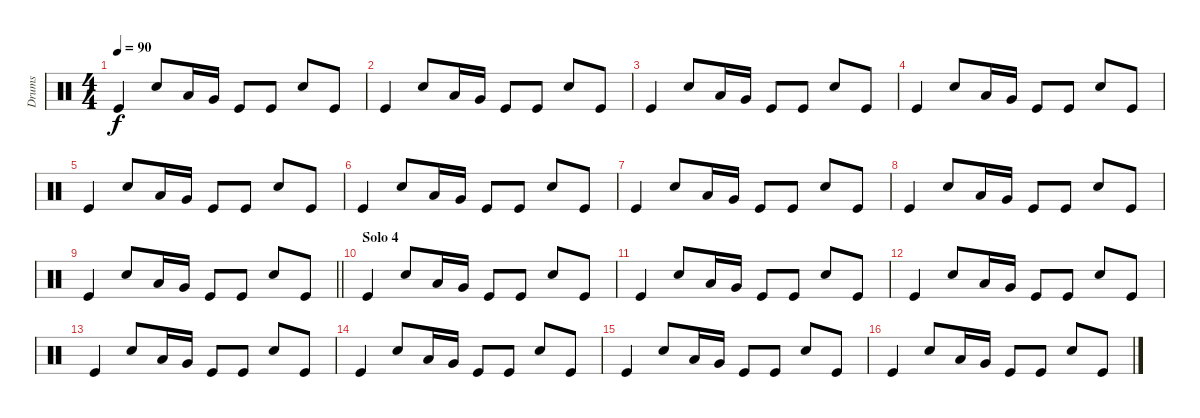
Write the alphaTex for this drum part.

\track ("Drums" "Drums") {instrument percussion}
\staff {score}
\articulation defaults
\ts (4 4)
\tempo 90
\clef neutral
\ks aminor "Kick (hit)".4{dy f} "Hand Clap (hit)".8 "Low Tom (hit)".16 "Very Low Tom (hit)".16 "Kick (hit)".8 "Kick (hit)".8 "Hand Clap (hit)".8 "Kick (hit)".8
|
"Kick (hit)".4 "Hand Clap (hit)".8 "Low Tom (hit)".16 "Very Low Tom (hit)".16 "Kick (hit)".8 "Kick (hit)".8 "Hand Clap (hit)".8 "Kick (hit)".8 |
"Kick (hit)".4 "Hand Clap (hit)".8 "Low Tom (hit)".16 "Very Low Tom (hit)".16 "Kick (hit)".8 "Kick (hit)".8 "Hand Clap (hit)".8 "Kick (hit)".8 |
"Kick (hit)".4 "Hand Clap (hit)".8 "Low Tom (hit)".16 "Very Low Tom (hit)".16 "Kick (hit)".8 "Kick (hit)".8 "Hand Clap (hit)".8 "Kick (hit)".8 |
"Kick (hit)".4 "Hand Clap (hit)".8 "Low Tom (hit)".16 "Very Low Tom (hit)".16 "Kick (hit)".8 "Kick (hit)".8 "Hand Clap (hit)".8 "Kick (hit)".8 |
"Kick (hit)".4 "Hand Clap (hit)".8 "Low Tom (hit)".16 "Very Low Tom (hit)".16 "Kick (hit)".8 "Kick (hit)".8 "Hand Clap (hit)".8 "Kick (hit)".8 |
"Kick (hit)".4 "Hand Clap (hit)".8 "Low Tom (hit)".16 "Very Low Tom (hit)".16 "Kick (hit)".8 "Kick (hit)".8 "Hand Clap (hit)".8 "Kick (hit)".8 |
"Kick (hit)".4 "Hand Clap (hit)".8 "Low Tom (hit)".16 "Very Low Tom (hit)".16 "Kick (hit)".8 "Kick (hit)".8 "Hand Clap (hit)".8 "Kick (hit)".8 |
\barLineRight lightlight "Kick (hit)".4 "Hand Clap (hit)".8 "Low Tom (hit)".16 "Very Low Tom (hit)".16 "Kick (hit)".8 "Kick (hit)".8 "Hand Clap (hit)".8 "Kick (hit)".8
|
\section ("" "Solo 4")
"Kick (hit)".4 "Hand Clap (hit)".8 "Low Tom (hit)".16 "Very Low Tom (hit)".16 "Kick (hit)".8 "Kick (hit)".8 "Hand Clap (hit)".8 "Kick (hit)".8 |
"Kick (hit)".4 "Hand Clap (hit)".8 "Low Tom (hit)".16 "Very Low Tom (hit)".16 "Kick (hit)".8 "Kick (hit)".8 "Hand Clap (hit)".8 "Kick (hit)".8 |
"Kick (hit)".4 "Hand Clap (hit)".8 "Low Tom (hit)".16 "Very Low Tom (hit)".16 "Kick (hit)".8 "Kick (hit)".8 "Hand Clap (hit)".8 "Kick (hit)".8 |
"Kick (hit)".4 "Hand Clap (hit)".8 "Low Tom (hit)".16 "Very Low Tom (hit)".16 "Kick (hit)".8 "Kick (hit)".8 "Hand Clap (hit)".8 "Kick (hit)".8 |
"Kick (hit)".4 "Hand Clap (hit)".8 "Low Tom (hit)".16 "Very Low Tom (hit)".16 "Kick (hit)".8 "Kick (hit)".8 "Hand Clap (hit)".8 "Kick (hit)".8 |
"Kick (hit)".4 "Hand Clap (hit)".8 "Low Tom (hit)".16 "Very Low Tom (hit)".16 "Kick (hit)".8 "Kick (hit)".8 "Hand Clap (hit)".8 "Kick (hit)".8 |
"Kick (hit)".4 "Hand Clap (hit)".8 "Low Tom (hit)".16 "Very Low Tom (hit)".16 "Kick (hit)".8 "Kick (hit)".8 "Hand Clap (hit)".8 "Kick (hit)".8
